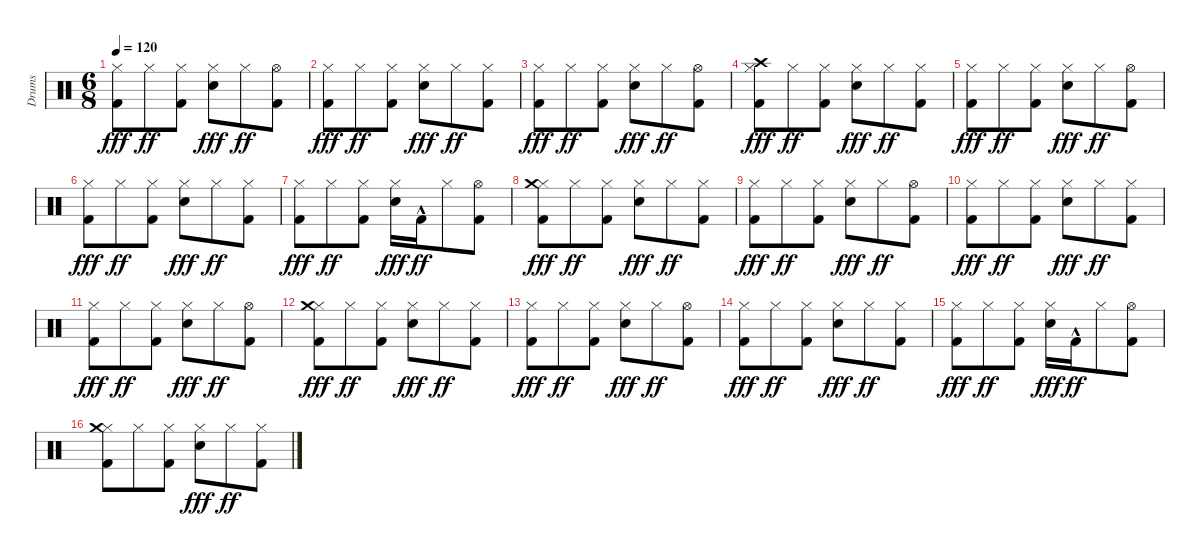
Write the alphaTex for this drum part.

\track ("Drums" "Drums") {instrument percussion}
\staff {score}
\articulation defaults
\ts (6 8)
\tempo 120
\clef neutral
\ks c
("Hi-Hat (closed)" "Kick (hit) 2").8{dy fff} "Hi-Hat (closed)".8{dy ff} ("Hi-Hat (closed)" "Kick (hit) 2").8 ("Hi-Hat (closed)" "Snare (hit) 2").8{dy fff} "Hi-Hat (closed)".8{dy ff} ("Hi-Hat (open)" "Kick (hit) 2").8 |
("Hi-Hat (closed)" "Kick (hit) 2").8{dy fff} "Hi-Hat (closed)".8{dy ff} ("Hi-Hat (closed)" "Kick (hit) 2").8 ("Hi-Hat (closed)" "Snare (hit) 2").8{dy fff} "Hi-Hat (closed)".8{dy ff} ("Hi-Hat (closed)" "Kick (hit) 2").8 |
("Hi-Hat (closed)" "Kick (hit) 2").8{dy fff} "Hi-Hat (closed)".8{dy ff} ("Hi-Hat (closed)" "Kick (hit) 2").8 ("Hi-Hat (closed)" "Snare (hit) 2").8{dy fff} "Hi-Hat (closed)".8{dy ff} ("Hi-Hat (open)" "Kick (hit) 2").8 |
("Hi-Hat (closed)" "Kick (hit) 2" "Crash high (hit)").8{dy fff} "Hi-Hat (closed)".8{dy ff} ("Hi-Hat (closed)" "Kick (hit) 2").8 ("Hi-Hat (closed)" "Snare (hit) 2").8{dy fff} "Hi-Hat (closed)".8{dy ff} ("Hi-Hat (closed)" "Kick (hit) 2").8 |
("Hi-Hat (closed)" "Kick (hit) 2").8{dy fff} "Hi-Hat (closed)".8{dy ff} ("Hi-Hat (closed)" "Kick (hit) 2").8 ("Hi-Hat (closed)" "Snare (hit) 2").8{dy fff} "Hi-Hat (closed)".8{dy ff} ("Hi-Hat (open)" "Kick (hit) 2").8 |
("Hi-Hat (closed)" "Kick (hit) 2").8{dy fff} "Hi-Hat (closed)".8{dy ff} ("Hi-Hat (closed)" "Kick (hit) 2").8 ("Hi-Hat (closed)" "Snare (hit) 2").8{dy fff} "Hi-Hat (closed)".8{dy ff} ("Hi-Hat (closed)" "Kick (hit) 2").8 |
("Hi-Hat (closed)" "Kick (hit) 2").8{dy fff} "Hi-Hat (closed)".8{dy ff} ("Hi-Hat (closed)" "Kick (hit) 2").8 ("Hi-Hat (closed)" "Snare (hit) 2").16{dy fff} "Kick (hit) 2"{hac}.16{dy ff} "Hi-Hat (closed)".8 ("Hi-Hat (open)" "Kick (hit) 2").8 |
("Hi-Hat (closed)" "Kick (hit) 2" "Crash medium (hit)").8{dy fff} "Hi-Hat (closed)".8{dy ff} ("Hi-Hat (closed)" "Kick (hit) 2").8 ("Hi-Hat (closed)" "Snare (hit) 2").8{dy fff} "Hi-Hat (closed)".8{dy ff} ("Hi-Hat (closed)" "Kick (hit) 2").8 |
("Hi-Hat (closed)" "Kick (hit) 2").8{dy fff} "Hi-Hat (closed)".8{dy ff} ("Hi-Hat (closed)" "Kick (hit) 2").8 ("Hi-Hat (closed)" "Snare (hit) 2").8{dy fff} "Hi-Hat (closed)".8{dy ff} ("Hi-Hat (open)" "Kick (hit) 2").8 |
("Hi-Hat (closed)" "Kick (hit) 2").8{dy fff} "Hi-Hat (closed)".8{dy ff} ("Hi-Hat (closed)" "Kick (hit) 2").8 ("Hi-Hat (closed)" "Snare (hit) 2").8{dy fff} "Hi-Hat (closed)".8{dy ff} ("Hi-Hat (closed)" "Kick (hit) 2").8 |
("Hi-Hat (closed)" "Kick (hit) 2").8{dy fff} "Hi-Hat (closed)".8{dy ff} ("Hi-Hat (closed)" "Kick (hit) 2").8 ("Hi-Hat (closed)" "Snare (hit) 2").8{dy fff} "Hi-Hat (closed)".8{dy ff} ("Hi-Hat (open)" "Kick (hit) 2").8 |
("Hi-Hat (closed)" "Kick (hit) 2" "Crash medium (hit)").8{dy fff} "Hi-Hat (closed)".8{dy ff} ("Hi-Hat (closed)" "Kick (hit) 2").8 ("Hi-Hat (closed)" "Snare (hit) 2").8{dy fff} "Hi-Hat (closed)".8{dy ff} ("Hi-Hat (closed)" "Kick (hit) 2").8 |
("Hi-Hat (closed)" "Kick (hit) 2").8{dy fff} "Hi-Hat (closed)".8{dy ff} ("Hi-Hat (closed)" "Kick (hit) 2").8 ("Hi-Hat (closed)" "Snare (hit) 2").8{dy fff} "Hi-Hat (closed)".8{dy ff} ("Hi-Hat (open)" "Kick (hit) 2").8 |
("Hi-Hat (closed)" "Kick (hit) 2").8{dy fff} "Hi-Hat (closed)".8{dy ff} ("Hi-Hat (closed)" "Kick (hit) 2").8 ("Hi-Hat (closed)" "Snare (hit) 2").8{dy fff} "Hi-Hat (closed)".8{dy ff} ("Hi-Hat (closed)" "Kick (hit) 2").8 |
("Hi-Hat (closed)" "Kick (hit) 2").8{dy fff} "Hi-Hat (closed)".8{dy ff} ("Hi-Hat (closed)" "Kick (hit) 2").8 ("Hi-Hat (closed)" "Snare (hit) 2").16{dy fff} "Kick (hit) 2"{hac}.16{dy ff} "Hi-Hat (closed)".8 ("Hi-Hat (open)" "Kick (hit) 2").8 |
("Hi-Hat (closed)" "Kick (hit) 2" "Crash medium (hit)").8 "Hi-Hat (closed)".8 ("Hi-Hat (closed)" "Kick (hit) 2").8 ("Hi-Hat (closed)" "Snare (hit) 2").8{dy fff} "Hi-Hat (closed)".8{dy ff} ("Hi-Hat (closed)" "Kick (hit) 2").8
